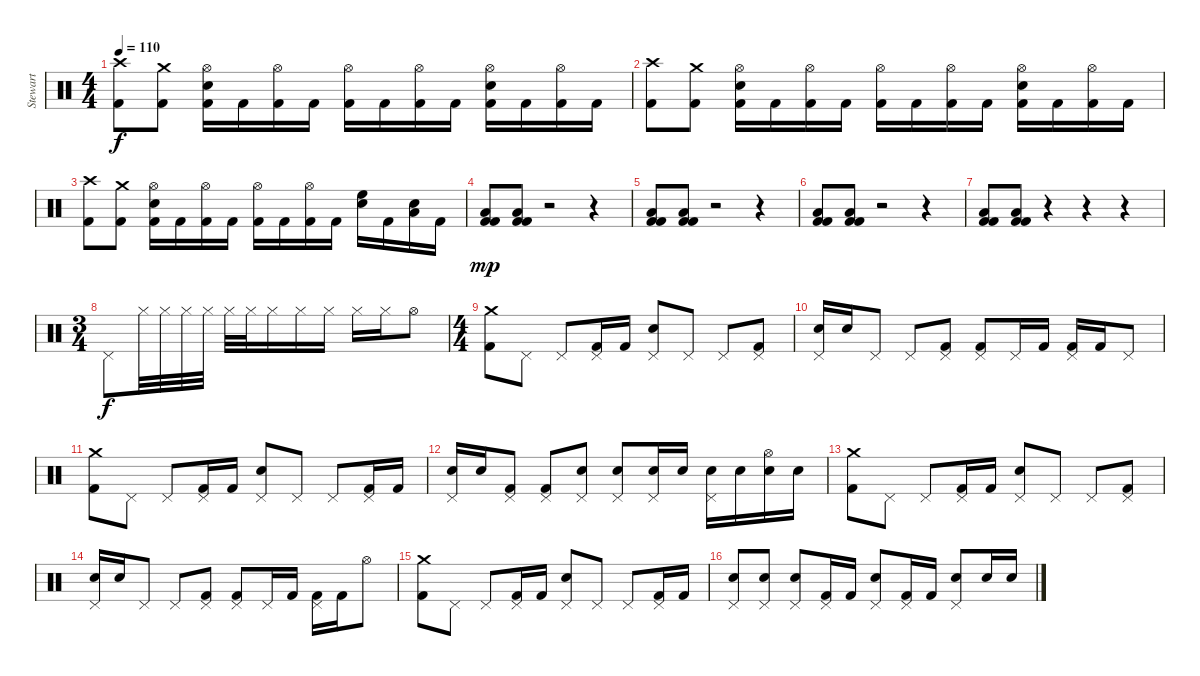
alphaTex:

\track ("Stewart" "Stewart") {instrument percussion}
\staff {score}
\articulation defaults
\ts (4 4)
\tempo 110
\clef neutral
\ks c
("Kick (hit) 2" "Crash high (hit)").8{dy f} ("Kick (hit) 2" "Crash medium (hit)").8 ("Kick (hit) 2" "Snare (hit) 2" "Hi-Hat (open)").16 "Kick (hit) 2".16 ("Kick (hit) 2" "Hi-Hat (open)").16 "Kick (hit) 2".16 ("Kick (hit) 2" "Hi-Hat (open)").16 "Kick (hit) 2".16 ("Kick (hit) 2" "Hi-Hat (open)").16 "Kick (hit) 2".16 ("Kick (hit) 2" "Snare (hit) 2" "Hi-Hat (open)").16 "Kick (hit) 2".16 ("Kick (hit) 2" "Hi-Hat (open)").16 "Kick (hit) 2".16 |
("Kick (hit) 2" "Crash high (hit)").8 ("Kick (hit) 2" "Crash medium (hit)").8 ("Kick (hit) 2" "Snare (hit) 2" "Hi-Hat (open)").16 "Kick (hit) 2".16 ("Kick (hit) 2" "Hi-Hat (open)").16 "Kick (hit) 2".16 ("Kick (hit) 2" "Hi-Hat (open)").16 "Kick (hit) 2".16 ("Kick (hit) 2" "Hi-Hat (open)").16 "Kick (hit) 2".16 ("Kick (hit) 2" "Snare (hit) 2" "Hi-Hat (open)").16 "Kick (hit) 2".16 ("Kick (hit) 2" "Hi-Hat (open)").16 "Kick (hit) 2".16 |
("Kick (hit) 2" "Crash high (hit)").8 ("Kick (hit) 2" "Crash medium (hit)").8 ("Kick (hit) 2" "Snare (hit) 2" "Hi-Hat (open)").16 "Kick (hit) 2".16 ("Kick (hit) 2" "Hi-Hat (open)").16 "Kick (hit) 2".16 ("Kick (hit) 2" "Hi-Hat (open)").16 "Kick (hit) 2".16 ("Kick (hit) 2" "Hi-Hat (open)").16 "Kick (hit) 2".16 ("High Floor Tom (hit)" "Snare (hit) 2").16 "Kick (hit) 2".16 ("Low Tom (hit)" "Snare (hit) 2").16 "Kick (hit) 2".16 |
("Kick (hit) 2" "Low Tom (hit)" "Kick (hit) 2").8{dy mp} ("Kick (hit) 2" "Low Floor Tom (hit)" "Kick (hit) 2").8 r.2 r.4 |
("Kick (hit) 2" "Low Tom (hit)" "Kick (hit) 2").8 ("Kick (hit) 2" "Low Floor Tom (hit)" "Kick (hit) 2").8 r.2 r.4 |
("Kick (hit) 2" "Low Tom (hit)" "Kick (hit) 2").8 ("Kick (hit) 2" "Low Floor Tom (hit)" "Kick (hit) 2").8 r.2 r.4 |
("Kick (hit) 2" "Low Tom (hit)" "Kick (hit) 2").8 ("Kick (hit) 2" "Low Floor Tom (hit)" "Kick (hit) 2").8 r.4 r.4 r.4 |
\ts (3 4)
"Pedal Hi-Hat (hit)".8{dy f} "Hi-Hat (closed)".32 "Hi-Hat (closed)".32 "Hi-Hat (closed)".32 "Hi-Hat (closed)".32 "Hi-Hat (closed)".32 "Hi-Hat (closed)".32 "Hi-Hat (closed)".16 "Hi-Hat (closed)".16 "Hi-Hat (closed)".16 "Hi-Hat (closed)".16 "Hi-Hat (closed)".16 "Hi-Hat (open)".8 |
\ts (4 4)
("Crash medium (hit)" "Kick (hit) 2").8 "Pedal Hi-Hat (hit)".8 "Pedal Hi-Hat (hit)".8 ("Pedal Hi-Hat (hit)" "Kick (hit) 2").16 "Kick (hit) 2".16 ("Pedal Hi-Hat (hit)" "Electric Snare (hit)").8 "Pedal Hi-Hat (hit)".8 "Pedal Hi-Hat (hit)".8 ("Pedal Hi-Hat (hit)" "Kick (hit) 2").8 |
("Pedal Hi-Hat (hit)" "Electric Snare (hit)").16 "Electric Snare (hit)".16 "Pedal Hi-Hat (hit)".8 "Pedal Hi-Hat (hit)".8 ("Pedal Hi-Hat (hit)" "Kick (hit) 2").8 ("Pedal Hi-Hat (hit)" "Kick (hit) 2").8 "Pedal Hi-Hat (hit)".16 "Kick (hit) 2".16 ("Pedal Hi-Hat (hit)" "Kick (hit) 2").16 "Kick (hit) 2".16 "Pedal Hi-Hat (hit)".8 |
("Crash medium (hit)" "Kick (hit) 2").8 "Pedal Hi-Hat (hit)".8 "Pedal Hi-Hat (hit)".8 ("Pedal Hi-Hat (hit)" "Kick (hit) 2").16 "Kick (hit) 2".16 ("Pedal Hi-Hat (hit)" "Electric Snare (hit)").8 "Pedal Hi-Hat (hit)".8 "Pedal Hi-Hat (hit)".8 ("Pedal Hi-Hat (hit)" "Kick (hit) 2").16 "Kick (hit) 2".16 |
("Pedal Hi-Hat (hit)" "Electric Snare (hit)").16 "Electric Snare (hit)".16 ("Pedal Hi-Hat (hit)" "Kick (hit) 2").8 ("Pedal Hi-Hat (hit)" "Kick (hit) 2").8 ("Pedal Hi-Hat (hit)" "Electric Snare (hit)").8 ("Pedal Hi-Hat (hit)" "Electric Snare (hit)").8 ("Pedal Hi-Hat (hit)" "Electric Snare (hit)").16 "Electric Snare (hit)".16 ("Pedal Hi-Hat (hit)" "Electric Snare (hit)").16 "Electric Snare (hit)".16 ("Hi-Hat (open)" "Electric Snare (hit)").16 "Electric Snare (hit)".16 |
("Crash medium (hit)" "Kick (hit) 2").8 "Pedal Hi-Hat (hit)".8 "Pedal Hi-Hat (hit)".8 ("Pedal Hi-Hat (hit)" "Kick (hit) 2").16 "Kick (hit) 2".16 ("Pedal Hi-Hat (hit)" "Electric Snare (hit)").8 "Pedal Hi-Hat (hit)".8 "Pedal Hi-Hat (hit)".8 ("Pedal Hi-Hat (hit)" "Kick (hit) 2").8 |
("Pedal Hi-Hat (hit)" "Electric Snare (hit)").16 "Electric Snare (hit)".16 "Pedal Hi-Hat (hit)".8 "Pedal Hi-Hat (hit)".8 ("Pedal Hi-Hat (hit)" "Kick (hit) 2").8 ("Pedal Hi-Hat (hit)" "Kick (hit) 2").8 "Pedal Hi-Hat (hit)".16 "Kick (hit) 2".16 ("Pedal Hi-Hat (hit)" "Kick (hit) 2").16 "Kick (hit) 2".16 "Hi-Hat (open)".8 |
("Crash medium (hit)" "Kick (hit) 2").8 "Pedal Hi-Hat (hit)".8 "Pedal Hi-Hat (hit)".8 ("Pedal Hi-Hat (hit)" "Kick (hit) 2").16 "Kick (hit) 2".16 ("Pedal Hi-Hat (hit)" "Electric Snare (hit)").8 "Pedal Hi-Hat (hit)".8 "Pedal Hi-Hat (hit)".8 ("Pedal Hi-Hat (hit)" "Kick (hit) 2").16 "Kick (hit) 2".16 |
("Pedal Hi-Hat (hit)" "Electric Snare (hit)").8 ("Pedal Hi-Hat (hit)" "Electric Snare (hit)").8 ("Pedal Hi-Hat (hit)" "Electric Snare (hit)").8 ("Pedal Hi-Hat (hit)" "Kick (hit) 2").16 "Kick (hit) 2".16 ("Pedal Hi-Hat (hit)" "Electric Snare (hit)").8 ("Pedal Hi-Hat (hit)" "Kick (hit) 2").16 "Kick (hit) 2".16 ("Pedal Hi-Hat (hit)" "Electric Snare (hit)").8 "Electric Snare (hit)".16 "Electric Snare (hit)".16
